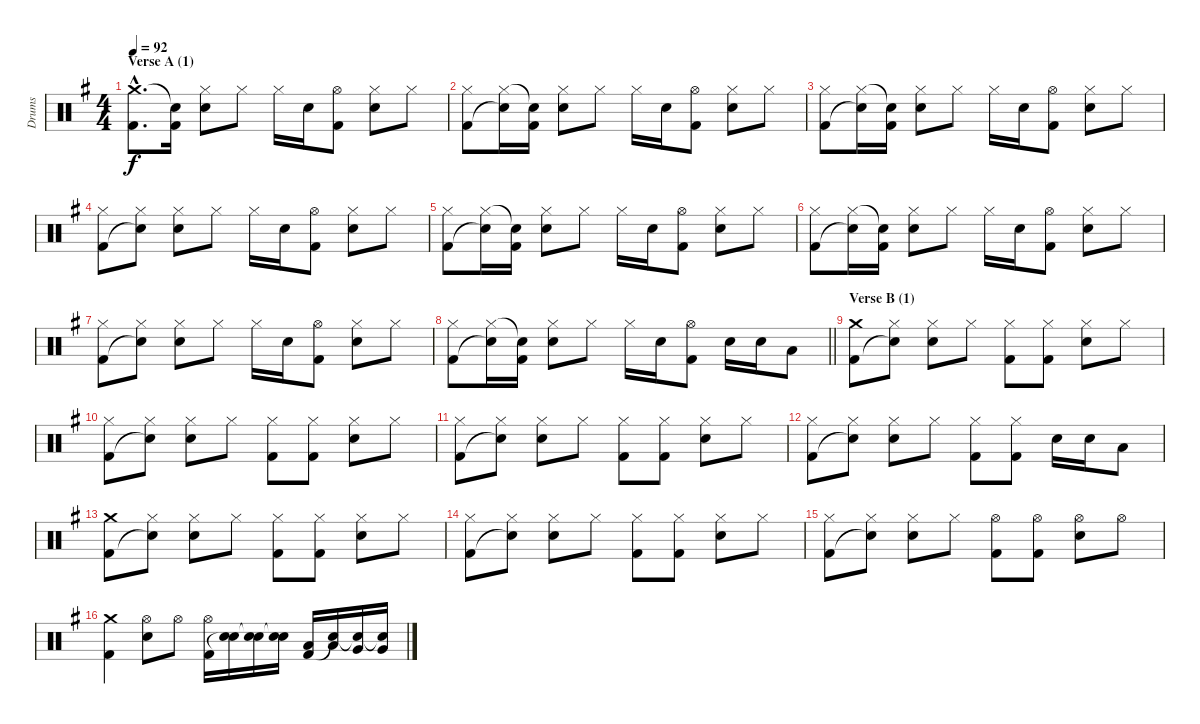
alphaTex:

\track ("Drums" "Drums") {instrument percussion}
\staff {score}
\articulation defaults
\ts (4 4)
\section ("" "Verse A (1)")
\tempo 92
\clef neutral
\ks g
("Crash medium (hit)"{hac} "Kick (hit) 2"{hac}).8{d dy f} ("Snare (hit)"{t} "Kick (hit) 2").16 ("Hi-Hat (closed)" "Electric Snare (hit)").8 "Hi-Hat (closed)".8 "Hi-Hat (closed)".16 "Electric Snare (hit)".16 ("Hi-Hat (open)" "Kick (hit) 2").8 ("Hi-Hat (closed)" "Electric Snare (hit)").8 "Hi-Hat (closed)".8 |
("Hi-Hat (closed)" "Kick (hit) 2").8 ("Hi-Hat (closed)" "Snare (hit)"{t}).16 ("Snare (hit)"{t} "Kick (hit) 2").16 ("Hi-Hat (closed)" "Electric Snare (hit)").8 "Hi-Hat (closed)".8 "Hi-Hat (closed)".16 "Electric Snare (hit)".16 ("Hi-Hat (open)" "Kick (hit) 2").8 ("Hi-Hat (closed)" "Electric Snare (hit)").8 "Hi-Hat (closed)".8 |
("Hi-Hat (closed)" "Kick (hit) 2").8 ("Hi-Hat (closed)" "Snare (hit)"{t}).16 ("Snare (hit)"{t} "Kick (hit) 2").16 ("Hi-Hat (closed)" "Electric Snare (hit)").8 "Hi-Hat (closed)".8 "Hi-Hat (closed)".16 "Electric Snare (hit)".16 ("Hi-Hat (open)" "Kick (hit) 2").8 ("Hi-Hat (closed)" "Electric Snare (hit)").8 "Hi-Hat (closed)".8 |
("Hi-Hat (closed)" "Kick (hit) 2").8 ("Hi-Hat (closed)" "Snare (hit)"{t}).8 ("Hi-Hat (closed)" "Electric Snare (hit)").8 "Hi-Hat (closed)".8 "Hi-Hat (closed)".16 "Electric Snare (hit)".16 ("Hi-Hat (open)" "Kick (hit) 2").8 ("Hi-Hat (closed)" "Electric Snare (hit)").8 "Hi-Hat (closed)".8 |
("Hi-Hat (closed)" "Kick (hit) 2").8 ("Hi-Hat (closed)" "Snare (hit)"{t}).16 ("Snare (hit)"{t} "Kick (hit) 2").16 ("Hi-Hat (closed)" "Electric Snare (hit)").8 "Hi-Hat (closed)".8 "Hi-Hat (closed)".16 "Electric Snare (hit)".16 ("Hi-Hat (open)" "Kick (hit) 2").8 ("Hi-Hat (closed)" "Electric Snare (hit)").8 "Hi-Hat (closed)".8 |
("Hi-Hat (closed)" "Kick (hit) 2").8 ("Hi-Hat (closed)" "Snare (hit)"{t}).16 ("Snare (hit)"{t} "Kick (hit) 2").16 ("Hi-Hat (closed)" "Electric Snare (hit)").8 "Hi-Hat (closed)".8 "Hi-Hat (closed)".16 "Electric Snare (hit)".16 ("Hi-Hat (open)" "Kick (hit) 2").8 ("Hi-Hat (closed)" "Electric Snare (hit)").8 "Hi-Hat (closed)".8 |
("Hi-Hat (closed)" "Kick (hit) 2").8 ("Hi-Hat (closed)" "Snare (hit)"{t}).8 ("Hi-Hat (closed)" "Electric Snare (hit)").8 "Hi-Hat (closed)".8 "Hi-Hat (closed)".16 "Electric Snare (hit)".16 ("Hi-Hat (open)" "Kick (hit) 2").8 ("Hi-Hat (closed)" "Electric Snare (hit)").8 "Hi-Hat (closed)".8 |
\barLineRight lightlight
("Hi-Hat (closed)" "Kick (hit) 2").8 ("Hi-Hat (closed)" "Snare (hit)"{t}).16 ("Snare (hit)"{t} "Kick (hit) 2").16 ("Hi-Hat (closed)" "Electric Snare (hit)").8 "Hi-Hat (closed)".8 "Hi-Hat (closed)".16 "Electric Snare (hit)".16 ("Hi-Hat (open)" "Kick (hit) 2").8 "Electric Snare (hit)".16 "Electric Snare (hit)".16 "Low Tom (hit)".8 |
\section ("" "Verse B (1)")
("Crash medium (hit)" "Kick (hit) 2").8 ("Hi-Hat (closed)" "Snare (hit)"{t}).8 ("Hi-Hat (closed)" "Electric Snare (hit)").8 "Hi-Hat (closed)".8 ("Hi-Hat (closed)" "Kick (hit) 2").8 ("Hi-Hat (closed)" "Kick (hit) 2").8 ("Hi-Hat (closed)" "Electric Snare (hit)").8 "Hi-Hat (closed)".8 |
("Hi-Hat (closed)" "Kick (hit) 2").8 ("Hi-Hat (closed)" "Snare (hit)"{t}).8 ("Hi-Hat (closed)" "Electric Snare (hit)").8 "Hi-Hat (closed)".8 ("Hi-Hat (closed)" "Kick (hit) 2").8 ("Hi-Hat (closed)" "Kick (hit) 2").8 ("Hi-Hat (closed)" "Electric Snare (hit)").8 "Hi-Hat (closed)".8 |
("Hi-Hat (closed)" "Kick (hit) 2").8 ("Hi-Hat (closed)" "Snare (hit)"{t}).8 ("Hi-Hat (closed)" "Electric Snare (hit)").8 "Hi-Hat (closed)".8 ("Hi-Hat (closed)" "Kick (hit) 2").8 ("Hi-Hat (closed)" "Kick (hit) 2").8 ("Hi-Hat (closed)" "Electric Snare (hit)").8 "Hi-Hat (closed)".8 |
("Hi-Hat (closed)" "Kick (hit) 2").8 ("Hi-Hat (closed)" "Snare (hit)"{t}).8 ("Hi-Hat (closed)" "Electric Snare (hit)").8 "Hi-Hat (closed)".8 ("Hi-Hat (closed)" "Kick (hit) 2").8 ("Hi-Hat (closed)" "Kick (hit) 2").8 "Electric Snare (hit)".16 "Electric Snare (hit)".16 "Low Tom (hit)".8 |
("Crash medium (hit)" "Kick (hit) 2").8 ("Hi-Hat (closed)" "Snare (hit)"{t}).8 ("Hi-Hat (closed)" "Electric Snare (hit)").8 "Hi-Hat (closed)".8 ("Hi-Hat (closed)" "Kick (hit) 2").8 ("Hi-Hat (closed)" "Kick (hit) 2").8 ("Hi-Hat (closed)" "Electric Snare (hit)").8 "Hi-Hat (closed)".8 |
("Hi-Hat (closed)" "Kick (hit) 2").8 ("Hi-Hat (closed)" "Snare (hit)"{t}).8 ("Hi-Hat (closed)" "Electric Snare (hit)").8 "Hi-Hat (closed)".8 ("Hi-Hat (closed)" "Kick (hit) 2").8 ("Hi-Hat (closed)" "Kick (hit) 2").8 ("Hi-Hat (closed)" "Electric Snare (hit)").8 "Hi-Hat (closed)".8 |
("Hi-Hat (closed)" "Kick (hit) 2").8 ("Hi-Hat (closed)" "Snare (hit)"{t}).8 ("Hi-Hat (closed)" "Electric Snare (hit)").8 "Hi-Hat (closed)".8 ("Hi-Hat (open)" "Kick (hit) 2").8 ("Hi-Hat (open)" "Kick (hit) 2").8 ("Hi-Hat (open)" "Electric Snare (hit)").8 "Hi-Hat (open)".8 |
("Crash medium (hit)" "Kick (hit) 2").4 ("Hi-Hat (open)" "Electric Snare (hit)").8 "Hi-Hat (open)".8 ("Hi-Hat (open)" "Kick (hit) 2").16 ("Electric Snare (hit)" "Snare (hit)"{t}).16 ("Electric Snare (hit)" "Snare (hit)"{t}).16 ("Electric Snare (hit)" "Snare (hit)"{t}).16 ("Low Tom (hit)" "Kick (hit) 2").16 ("Low Tom (hit)" "Snare (hit)"{t}).16 ("Very Low Tom (hit)" "Snare (hit)"{t}).16 ("Very Low Tom (hit)" "Snare (hit)"{t}).16
